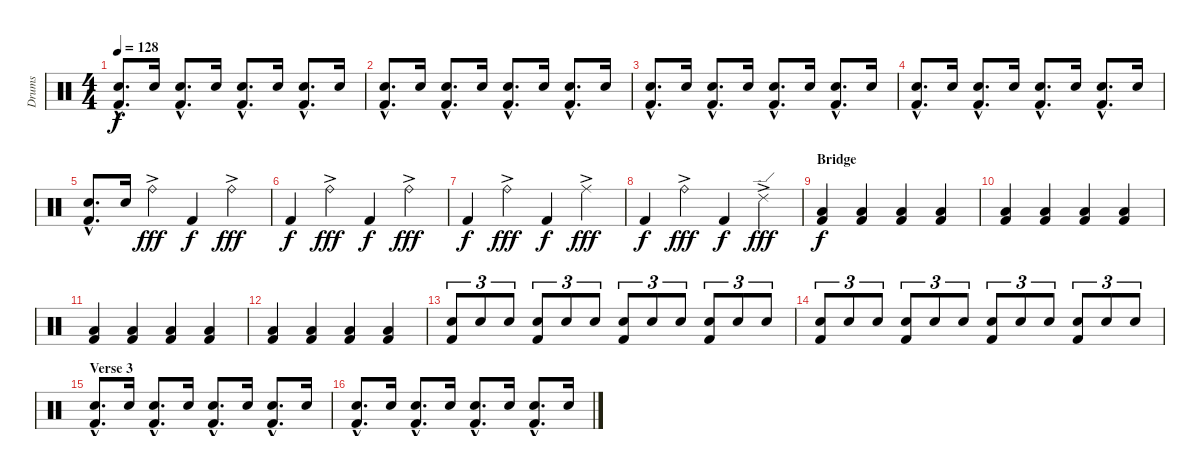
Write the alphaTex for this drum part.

\track ("Drums" "Drums") {instrument percussion}
\staff {score}
\articulation defaults
\ts (4 4)
\tempo 128
\clef neutral
\ks c
("Snare (hit) 2"{hac} "Kick (hit) 2"{hac}).8{d dy f} "Snare (hit) 2".16 ("Snare (hit) 2"{hac} "Kick (hit) 2"{hac}).8{d} "Snare (hit) 2".16 ("Snare (hit) 2"{hac} "Kick (hit) 2"{hac}).8{d} "Snare (hit) 2".16 ("Snare (hit) 2"{hac} "Kick (hit) 2"{hac}).8{d} "Snare (hit) 2".16 |
("Snare (hit) 2"{hac} "Kick (hit) 2"{hac}).8{d} "Snare (hit) 2".16 ("Snare (hit) 2"{hac} "Kick (hit) 2"{hac}).8{d} "Snare (hit) 2".16 ("Snare (hit) 2"{hac} "Kick (hit) 2"{hac}).8{d} "Snare (hit) 2".16 ("Snare (hit) 2"{hac} "Kick (hit) 2"{hac}).8{d} "Snare (hit) 2".16 |
("Snare (hit) 2"{hac} "Kick (hit) 2"{hac}).8{d} "Snare (hit) 2".16 ("Snare (hit) 2"{hac} "Kick (hit) 2"{hac}).8{d} "Snare (hit) 2".16 ("Snare (hit) 2"{hac} "Kick (hit) 2"{hac}).8{d} "Snare (hit) 2".16 ("Snare (hit) 2"{hac} "Kick (hit) 2"{hac}).8{d} "Snare (hit) 2".16 |
("Snare (hit) 2"{hac} "Kick (hit) 2"{hac}).8{d} "Snare (hit) 2".16 ("Snare (hit) 2"{hac} "Kick (hit) 2"{hac}).8{d} "Snare (hit) 2".16 ("Snare (hit) 2"{hac} "Kick (hit) 2"{hac}).8{d} "Snare (hit) 2".16 ("Snare (hit) 2"{hac} "Kick (hit) 2"{hac}).8{d} "Snare (hit) 2".16 |
("Snare (hit) 2"{hac} "Kick (hit) 2"{hac}).8{d} "Snare (hit) 2".16 "Ride (bell)"{ac}.4{dy fff} "Kick (hit) 2".4{dy f} "Ride (bell)"{ac}.4{dy fff} |
"Kick (hit) 2".4{dy f} "Ride (bell)"{ac}.4{dy fff} "Kick (hit) 2".4{dy f} "Ride (bell)"{ac}.4{dy fff} |
"Kick (hit) 2".4{dy f} "Ride (bell)"{ac}.4{dy fff} "Kick (hit) 2".4{dy f} "Ride (middle)"{ac}.4{dy fff} |
"Kick (hit) 2".4{dy f} "Ride (bell)"{ac}.4{dy fff} "Kick (hit) 2".4{dy f} "Ride (edge) 2"{ac}.4{dy fff} |
\section ("" "Bridge")
("Low Floor Tom (hit)" "Kick (hit) 2").4{dy f} ("Low Floor Tom (hit)" "Kick (hit) 2").4 ("Low Floor Tom (hit)" "Kick (hit) 2").4 ("Low Floor Tom (hit)" "Kick (hit) 2").4 |
("Low Floor Tom (hit)" "Kick (hit) 2").4 ("Low Floor Tom (hit)" "Kick (hit) 2").4 ("Low Floor Tom (hit)" "Kick (hit) 2").4 ("Low Floor Tom (hit)" "Kick (hit) 2").4 |
("Low Floor Tom (hit)" "Kick (hit) 2").4 ("Low Floor Tom (hit)" "Kick (hit) 2").4 ("Low Floor Tom (hit)" "Kick (hit) 2").4 ("Low Floor Tom (hit)" "Kick (hit) 2").4 |
("Low Floor Tom (hit)" "Kick (hit) 2").4 ("Low Floor Tom (hit)" "Kick (hit) 2").4 ("Low Floor Tom (hit)" "Kick (hit) 2").4 ("Low Floor Tom (hit)" "Kick (hit) 2").4 |
("Snare (hit) 2" "Kick (hit) 2").8{tu (3 2)} "Snare (hit) 2".8{tu (3 2)} "Snare (hit) 2".8{tu (3 2)} ("Snare (hit) 2" "Kick (hit) 2").8{tu (3 2)} "Snare (hit) 2".8{tu (3 2)} "Snare (hit) 2".8{tu (3 2)} ("Snare (hit) 2" "Kick (hit) 2").8{tu (3 2)} "Snare (hit) 2".8{tu (3 2)} "Snare (hit) 2".8{tu (3 2)} ("Snare (hit) 2" "Kick (hit) 2").8{tu (3 2)} "Snare (hit) 2".8{tu (3 2)} "Snare (hit) 2".8{tu (3 2)} |
("Snare (hit) 2" "Kick (hit) 2").8{tu (3 2)} "Snare (hit) 2".8{tu (3 2)} "Snare (hit) 2".8{tu (3 2)} ("Snare (hit) 2" "Kick (hit) 2").8{tu (3 2)} "Snare (hit) 2".8{tu (3 2)} "Snare (hit) 2".8{tu (3 2)} ("Snare (hit) 2" "Kick (hit) 2").8{tu (3 2)} "Snare (hit) 2".8{tu (3 2)} "Snare (hit) 2".8{tu (3 2)} ("Snare (hit) 2" "Kick (hit) 2").8{tu (3 2)} "Snare (hit) 2".8{tu (3 2)} "Snare (hit) 2".8{tu (3 2)} |
\section ("" "Verse 3")
("Snare (hit) 2"{hac} "Kick (hit) 2"{hac}).8{d} "Snare (hit) 2".16 ("Snare (hit) 2"{hac} "Kick (hit) 2"{hac}).8{d} "Snare (hit) 2".16 ("Snare (hit) 2"{hac} "Kick (hit) 2"{hac}).8{d} "Snare (hit) 2".16 ("Snare (hit) 2"{hac} "Kick (hit) 2"{hac}).8{d} "Snare (hit) 2".16 |
("Snare (hit) 2"{hac} "Kick (hit) 2"{hac}).8{d} "Snare (hit) 2".16 ("Snare (hit) 2"{hac} "Kick (hit) 2"{hac}).8{d} "Snare (hit) 2".16 ("Snare (hit) 2"{hac} "Kick (hit) 2"{hac}).8{d} "Snare (hit) 2".16 ("Snare (hit) 2"{hac} "Kick (hit) 2"{hac}).8{d} "Snare (hit) 2".16
